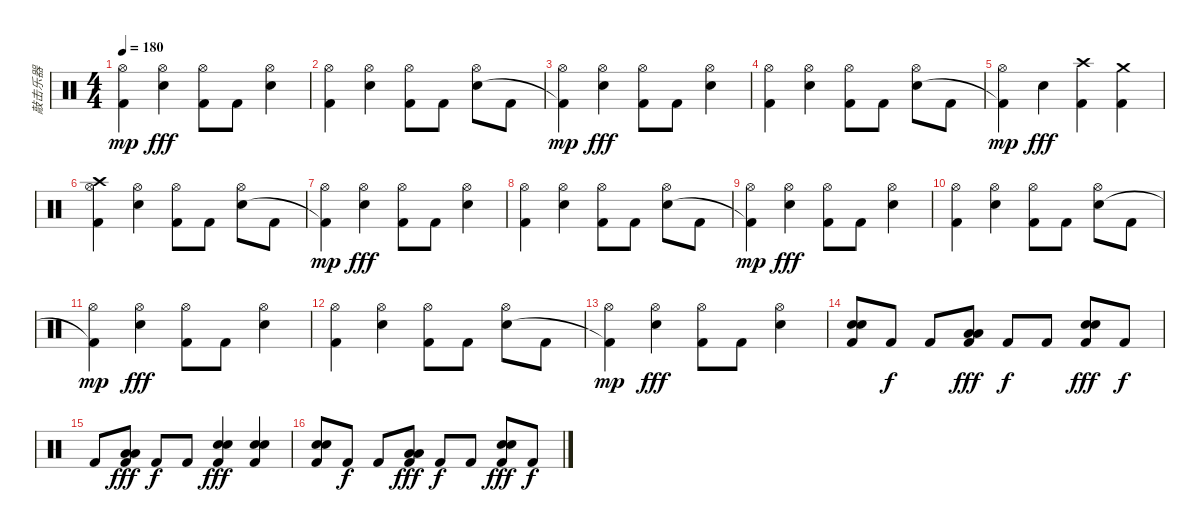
\track ("敲击乐器" "敲击乐器") {instrument percussion}
\staff {score}
\articulation defaults
\ts (4 4)
\tempo 180
\clef neutral
\ks c
("Hi-Hat (open)" "Kick (hit) 2"{t}).4{dy mp} ("Hi-Hat (open)" "Electric Snare (hit)").4{dy fff} ("Hi-Hat (open)" "Kick (hit) 2").8 "Kick (hit) 2".8 ("Hi-Hat (open)" "Electric Snare (hit)").4 |
("Hi-Hat (open)" "Kick (hit) 2").4 ("Hi-Hat (open)" "Electric Snare (hit)").4 ("Hi-Hat (open)" "Kick (hit) 2").8 "Kick (hit) 2".8 ("Hi-Hat (open)" "Electric Snare (hit)").8 "Kick (hit) 2".8 |
("Hi-Hat (open)" "Kick (hit) 2"{t}).4{dy mp} ("Hi-Hat (open)" "Electric Snare (hit)").4{dy fff} ("Hi-Hat (open)" "Kick (hit) 2").8 "Kick (hit) 2".8 ("Hi-Hat (open)" "Electric Snare (hit)").4 |
("Hi-Hat (open)" "Kick (hit) 2").4 ("Hi-Hat (open)" "Electric Snare (hit)").4 ("Hi-Hat (open)" "Kick (hit) 2").8 "Kick (hit) 2".8 ("Hi-Hat (open)" "Electric Snare (hit)").8 "Kick (hit) 2".8 |
("Hi-Hat (open)" "Kick (hit) 2"{t}).4{dy mp} "Electric Snare (hit)".4{dy fff} ("Crash high (hit)" "Kick (hit) 2").4 ("Crash medium (hit)" "Kick (hit) 2").4 |
("Crash high (hit)" "Hi-Hat (open)" "Kick (hit) 2").4 ("Hi-Hat (open)" "Electric Snare (hit)").4 ("Hi-Hat (open)" "Kick (hit) 2").8 "Kick (hit) 2".8 ("Hi-Hat (open)" "Electric Snare (hit)").8 "Kick (hit) 2".8 |
("Hi-Hat (open)" "Kick (hit) 2"{t}).4{dy mp} ("Hi-Hat (open)" "Electric Snare (hit)").4{dy fff} ("Hi-Hat (open)" "Kick (hit) 2").8 "Kick (hit) 2".8 ("Hi-Hat (open)" "Electric Snare (hit)").4 |
("Hi-Hat (open)" "Kick (hit) 2").4 ("Hi-Hat (open)" "Electric Snare (hit)").4 ("Hi-Hat (open)" "Kick (hit) 2").8 "Kick (hit) 2".8 ("Hi-Hat (open)" "Electric Snare (hit)").8 "Kick (hit) 2".8 |
("Hi-Hat (open)" "Kick (hit) 2"{t}).4{dy mp} ("Hi-Hat (open)" "Electric Snare (hit)").4{dy fff} ("Hi-Hat (open)" "Kick (hit) 2").8 "Kick (hit) 2".8 ("Hi-Hat (open)" "Electric Snare (hit)").4 |
("Hi-Hat (open)" "Kick (hit) 2").4 ("Hi-Hat (open)" "Electric Snare (hit)").4 ("Hi-Hat (open)" "Kick (hit) 2").8 "Kick (hit) 2".8 ("Hi-Hat (open)" "Electric Snare (hit)").8 "Kick (hit) 2".8 |
("Hi-Hat (open)" "Kick (hit) 2"{t}).4{dy mp} ("Hi-Hat (open)" "Electric Snare (hit)").4{dy fff} ("Hi-Hat (open)" "Kick (hit) 2").8 "Kick (hit) 2".8 ("Hi-Hat (open)" "Electric Snare (hit)").4 |
("Hi-Hat (open)" "Kick (hit) 2").4 ("Hi-Hat (open)" "Electric Snare (hit)").4 ("Hi-Hat (open)" "Kick (hit) 2").8 "Kick (hit) 2".8 ("Hi-Hat (open)" "Electric Snare (hit)").8 "Kick (hit) 2".8 |
("Hi-Hat (open)" "Kick (hit) 2"{t}).4{dy mp} ("Hi-Hat (open)" "Electric Snare (hit)").4{dy fff} ("Hi-Hat (open)" "Kick (hit) 2").8 "Kick (hit) 2".8 ("Hi-Hat (open)" "Electric Snare (hit)").4 |
("Electric Snare (hit)" "Electric Snare (hit)" "Kick (hit) 2").8 "Kick (hit) 2".8{dy f} "Kick (hit) 2".8 ("Low Tom (hit)" "Low Tom (hit)" "Kick (hit) 2").8{dy fff} "Kick (hit) 2".8{dy f} "Kick (hit) 2".8 ("Electric Snare (hit)" "Electric Snare (hit)" "Kick (hit) 2").8{dy fff} "Kick (hit) 2".8{dy f} |
"Kick (hit) 2".8 ("Low Tom (hit)" "Low Tom (hit)" "Kick (hit) 2").8{dy fff} "Kick (hit) 2".8{dy f} "Kick (hit) 2".8 ("Electric Snare (hit)" "Electric Snare (hit)" "Kick (hit) 2").4{dy fff} ("Electric Snare (hit)" "Electric Snare (hit)" "Kick (hit) 2").4 |
("Electric Snare (hit)" "Electric Snare (hit)" "Kick (hit) 2").8 "Kick (hit) 2".8{dy f} "Kick (hit) 2".8 ("Low Tom (hit)" "Low Tom (hit)" "Kick (hit) 2").8{dy fff} "Kick (hit) 2".8{dy f} "Kick (hit) 2".8 ("Electric Snare (hit)" "Electric Snare (hit)" "Kick (hit) 2").8{dy fff} "Kick (hit) 2".8{dy f}
